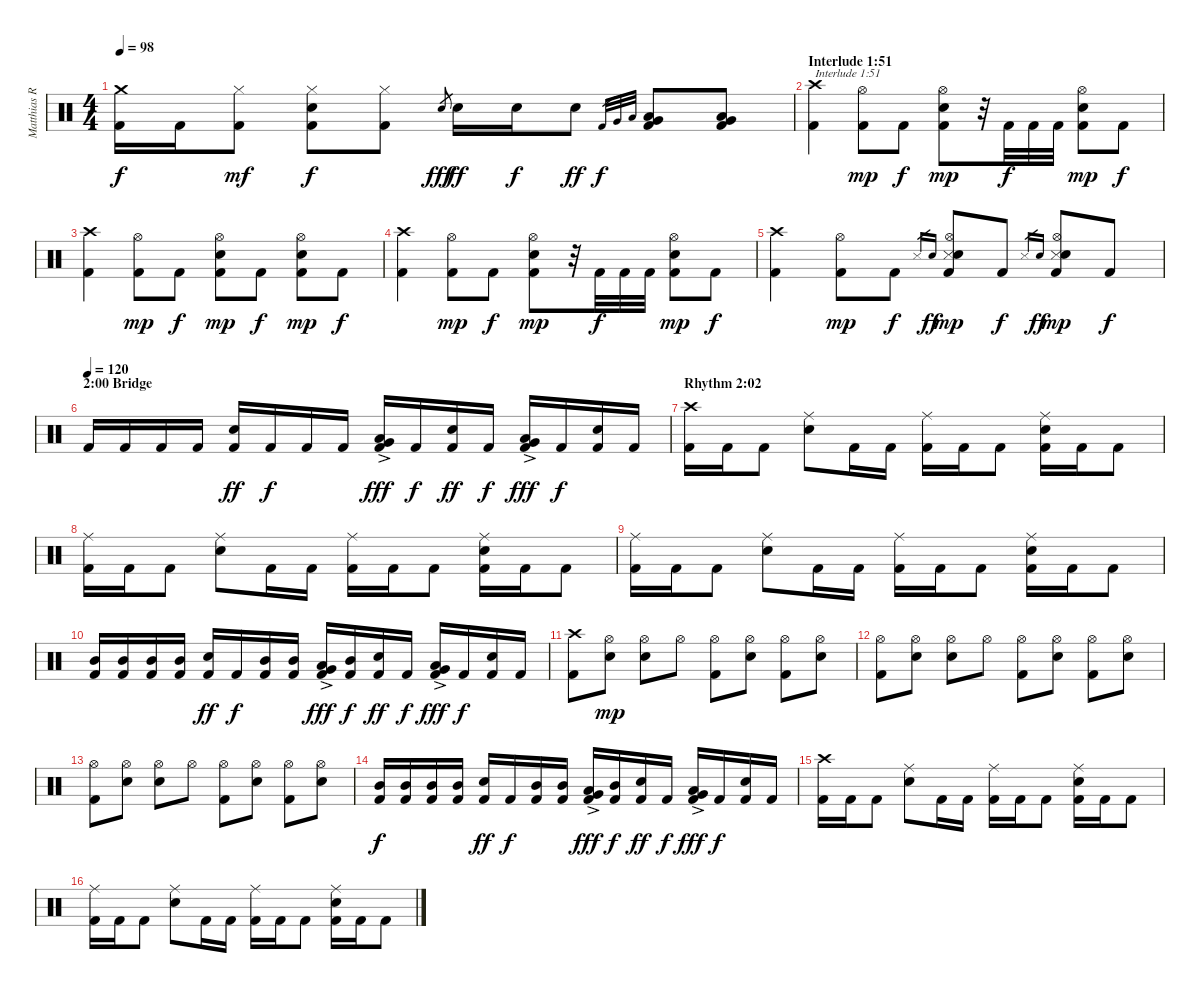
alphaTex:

\track ("Matthias R." "Matthias R") {instrument percussion}
\staff {score}
\articulation defaults
\ts (4 4)
\tempo 98
\clef neutral
\ks c
("Kick (hit) 2" "Crash medium (hit)").16{dy f} "Kick (hit) 2".16 ("Kick (hit) 2" "Hi-Hat (closed)").8{dy mf} ("Kick (hit) 2" "Electric Snare (hit)" "Hi-Hat (closed)").8{dy f} ("Kick (hit) 2" "Hi-Hat (closed)").8 "Electric Snare (hit)".8{gr dy fff} "Electric Snare (hit)".16{dy ff} "Electric Snare (hit)".16{dy f} "Electric Snare (hit)".8{dy ff} "Kick (hit) 2".32{gr dy f} "Very Low Tom (hit)".32{gr} "Low Tom (hit)".32{gr} ("Kick (hit) 2" "Very Low Tom (hit)" "Low Tom (hit)").8 ("Kick (hit) 2" "Very Low Tom (hit)" "Low Tom (hit)").8 |
\section ("" "Interlude 1:51")
("Kick (hit) 2" "Crash high (hit)").4{txt "Interlude 1:51"} ("Kick (hit) 2" "Hi-Hat (open)").8{dy mp} "Kick (hit) 2".8{dy f} ("Kick (hit) 2" "Electric Snare (hit)" "Hi-Hat (open)").8{dy mp} r.32 "Kick (hit) 2".32{dy f} "Kick (hit) 2".32 "Kick (hit) 2".32 ("Kick (hit) 2" "Electric Snare (hit)" "Hi-Hat (open)").8{dy mp} "Kick (hit) 2".8{dy f} |
("Kick (hit) 2" "Crash high (hit)").4 ("Kick (hit) 2" "Hi-Hat (open)").8{dy mp} "Kick (hit) 2".8{dy f} ("Kick (hit) 2" "Electric Snare (hit)" "Hi-Hat (open)").8{dy mp} "Kick (hit) 2".8{dy f} ("Kick (hit) 2" "Electric Snare (hit)" "Hi-Hat (open)").8{dy mp} "Kick (hit) 2".8{dy f} |
("Kick (hit) 2" "Crash high (hit)").4 ("Kick (hit) 2" "Hi-Hat (open)").8{dy mp} "Kick (hit) 2".8{dy f} ("Kick (hit) 2" "Electric Snare (hit)" "Hi-Hat (open)").8{dy mp} r.32 "Kick (hit) 2".32{dy f} "Kick (hit) 2".32 "Kick (hit) 2".32 ("Kick (hit) 2" "Electric Snare (hit)" "Hi-Hat (open)").8{dy mp} "Kick (hit) 2".8{dy f} |
("Kick (hit) 2" "Crash high (hit)").4 ("Kick (hit) 2" "Hi-Hat (open)").8{dy mp} "Kick (hit) 2".8{dy f} "Metronome (hit)".16{gr} "Electric Snare (hit)".16{gr dy ff} ("Kick (hit) 2" "Metronome (hit)" "Electric Snare (hit)" "Hi-Hat (open)").8{dy mp} "Kick (hit) 2".8{dy f} "Metronome (hit)".16{gr} "Electric Snare (hit)".16{gr dy ff} ("Kick (hit) 2" "Metronome (hit)" "Electric Snare (hit)" "Hi-Hat (open)").8{dy mp} "Kick (hit) 2".8{dy f} |
\section ("" "2:00 Bridge")
\tempo (120)
"Kick (hit) 2".16 "Kick (hit) 2".16 "Kick (hit) 2".16 "Kick (hit) 2".16 ("Kick (hit) 2" "Electric Snare (hit)").16{dy ff} "Kick (hit) 2".16{dy f} "Kick (hit) 2".16 "Kick (hit) 2".16 ("Kick (hit) 2" "Very Low Tom (hit)"{ac} "Low Tom (hit)"{ac}).16{dy fff} "Kick (hit) 2".16{dy f} ("Kick (hit) 2" "Electric Snare (hit)").16{dy ff} "Kick (hit) 2".16{dy f} ("Kick (hit) 2" "Very Low Tom (hit)"{ac} "Low Tom (hit)"{ac}).16{dy fff} "Kick (hit) 2".16{dy f} ("Kick (hit) 2" "Electric Snare (hit)").16 "Kick (hit) 2".16 |
\section ("" "Rhythm 2:02")
("Kick (hit) 2" "Crash high (hit)").16 "Kick (hit) 2".16 "Kick (hit) 2".8 ("Electric Snare (hit)" "Ride (middle)").8 "Kick (hit) 2".16 "Kick (hit) 2".16 ("Kick (hit) 2" "Ride (middle)").16 "Kick (hit) 2".16 "Kick (hit) 2".8 ("Kick (hit) 2" "Electric Snare (hit)" "Ride (middle)").16 "Kick (hit) 2".16 "Kick (hit) 2".8 |
("Kick (hit) 2" "Ride (middle)").16 "Kick (hit) 2".16 "Kick (hit) 2".8 ("Electric Snare (hit)" "Ride (middle)").8 "Kick (hit) 2".16 "Kick (hit) 2".16 ("Kick (hit) 2" "Ride (middle)").16 "Kick (hit) 2".16 "Kick (hit) 2".8 ("Kick (hit) 2" "Electric Snare (hit)" "Ride (middle)").16 "Kick (hit) 2".16 "Kick (hit) 2".8 |
("Kick (hit) 2" "Ride (middle)").16 "Kick (hit) 2".16 "Kick (hit) 2".8 ("Electric Snare (hit)" "Ride (middle)").8 "Kick (hit) 2".16 "Kick (hit) 2".16 ("Kick (hit) 2" "Ride (middle)").16 "Kick (hit) 2".16 "Kick (hit) 2".8 ("Kick (hit) 2" "Electric Snare (hit)" "Ride (middle)").16 "Kick (hit) 2".16 "Kick (hit) 2".8 |
("Kick (hit) 2" "Mid Tom (hit)").16 ("Kick (hit) 2" "Mid Tom (hit)").16 ("Kick (hit) 2" "Mid Tom (hit)").16 ("Kick (hit) 2" "Mid Tom (hit)").16 ("Kick (hit) 2" "Electric Snare (hit)").16{dy ff} "Kick (hit) 2".16{dy f} ("Kick (hit) 2" "Mid Tom (hit)").16 ("Kick (hit) 2" "Mid Tom (hit)").16 ("Kick (hit) 2" "Very Low Tom (hit)"{ac} "Low Tom (hit)"{ac}).16{dy fff} ("Kick (hit) 2" "Mid Tom (hit)").16{dy f} ("Kick (hit) 2" "Electric Snare (hit)").16{dy ff} "Kick (hit) 2".16{dy f} ("Kick (hit) 2" "Very Low Tom (hit)"{ac} "Low Tom (hit)"{ac}).16{dy fff} "Kick (hit) 2".16{dy f} ("Kick (hit) 2" "Electric Snare (hit)").16 "Kick (hit) 2".16 |
("Kick (hit) 2" "Crash high (hit)").8 ("Electric Snare (hit)" "Hi-Hat (open)").8{dy mp} ("Electric Snare (hit)" "Hi-Hat (open)").8 "Hi-Hat (open)".8 ("Kick (hit) 2" "Hi-Hat (open)").8 ("Electric Snare (hit)" "Hi-Hat (open)").8 ("Kick (hit) 2" "Hi-Hat (open)").8 ("Electric Snare (hit)" "Hi-Hat (open)").8 |
("Kick (hit) 2" "Hi-Hat (open)").8 ("Electric Snare (hit)" "Hi-Hat (open)").8 ("Electric Snare (hit)" "Hi-Hat (open)").8 "Hi-Hat (open)".8 ("Kick (hit) 2" "Hi-Hat (open)").8 ("Electric Snare (hit)" "Hi-Hat (open)").8 ("Kick (hit) 2" "Hi-Hat (open)").8 ("Electric Snare (hit)" "Hi-Hat (open)").8 |
("Kick (hit) 2" "Hi-Hat (open)").8 ("Electric Snare (hit)" "Hi-Hat (open)").8 ("Electric Snare (hit)" "Hi-Hat (open)").8 "Hi-Hat (open)".8 ("Kick (hit) 2" "Hi-Hat (open)").8 ("Electric Snare (hit)" "Hi-Hat (open)").8 ("Kick (hit) 2" "Hi-Hat (open)").8 ("Electric Snare (hit)" "Hi-Hat (open)").8 |
("Kick (hit) 2" "Mid Tom (hit)").16{dy f} ("Kick (hit) 2" "Mid Tom (hit)").16 ("Kick (hit) 2" "Mid Tom (hit)").16 ("Kick (hit) 2" "Mid Tom (hit)").16 ("Kick (hit) 2" "Electric Snare (hit)").16{dy ff} "Kick (hit) 2".16{dy f} ("Kick (hit) 2" "Mid Tom (hit)").16 ("Kick (hit) 2" "Mid Tom (hit)").16 ("Kick (hit) 2" "Very Low Tom (hit)"{ac} "Low Tom (hit)"{ac}).16{dy fff} ("Kick (hit) 2" "Mid Tom (hit)").16{dy f} ("Kick (hit) 2" "Electric Snare (hit)").16{dy ff} "Kick (hit) 2".16{dy f} ("Kick (hit) 2" "Very Low Tom (hit)"{ac} "Low Tom (hit)"{ac}).16{dy fff} "Kick (hit) 2".16{dy f} ("Kick (hit) 2" "Electric Snare (hit)").16 "Kick (hit) 2".16 |
("Kick (hit) 2" "Crash high (hit)").16 "Kick (hit) 2".16 "Kick (hit) 2".8 ("Electric Snare (hit)" "Ride (middle)").8 "Kick (hit) 2".16 "Kick (hit) 2".16 ("Kick (hit) 2" "Ride (middle)").16 "Kick (hit) 2".16 "Kick (hit) 2".8 ("Kick (hit) 2" "Electric Snare (hit)" "Ride (middle)").16 "Kick (hit) 2".16 "Kick (hit) 2".8 |
("Kick (hit) 2" "Ride (middle)").16 "Kick (hit) 2".16 "Kick (hit) 2".8 ("Electric Snare (hit)" "Ride (middle)").8 "Kick (hit) 2".16 "Kick (hit) 2".16 ("Kick (hit) 2" "Ride (middle)").16 "Kick (hit) 2".16 "Kick (hit) 2".8 ("Kick (hit) 2" "Electric Snare (hit)" "Ride (middle)").16 "Kick (hit) 2".16 "Kick (hit) 2".8
